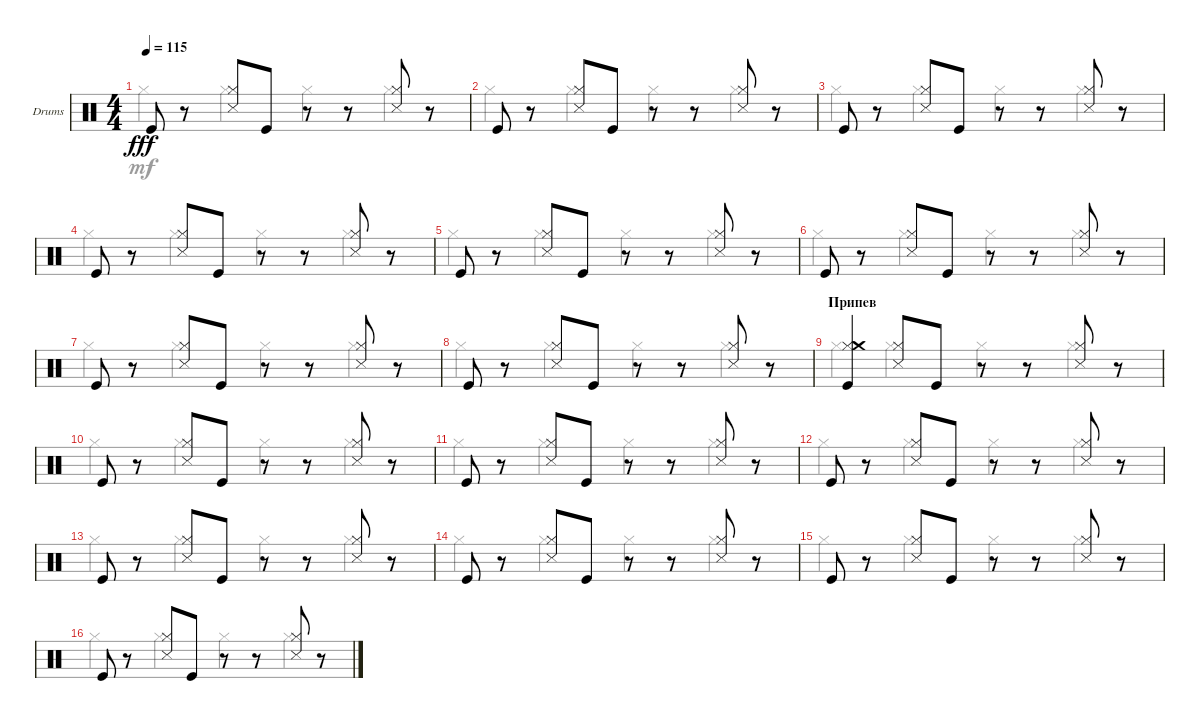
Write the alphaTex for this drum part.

\defaultSystemsLayout 4
\bracketExtendMode groupsimilarinstruments
\firstSystemTrackNameOrientation horizontal
\otherSystemsTrackNameOrientation horizontal
\track ("Миша \"Пчёлка\" Краев (Ударные)" "Drums") {instrument percussion}
\staff {score}
\articulation defaults
\voice
\ts (4 4)
\tempo 115
\clef neutral
\ks c "Kick (hit)".8{dy fff}
r.8 ("Snare (side stick) 3" "Hi-Hat (closed)").8 "Kick (hit)".8 r.8 r.8 ("Hi-Hat (closed)" "Snare (side stick) 3").8 r.8 |
"Kick (hit)".8 r.8 ("Hi-Hat (closed)" "Snare (side stick) 3").8 "Kick (hit)".8 r.8 r.8 ("Hi-Hat (closed)" "Snare (side stick) 3").8 r.8 |
"Kick (hit)".8 r.8 ("Hi-Hat (closed)" "Snare (side stick) 3").8 "Kick (hit)".8 r.8 r.8 ("Hi-Hat (closed)" "Snare (side stick) 3").8 r.8 |
"Kick (hit)".8 r.8 ("Hi-Hat (closed)" "Snare (side stick) 3").8 "Kick (hit)".8 r.8 r.8 ("Hi-Hat (closed)" "Snare (side stick) 3").8 r.8 |
"Kick (hit)".8 r.8 ("Hi-Hat (closed)" "Snare (side stick) 3").8 "Kick (hit)".8 r.8 r.8 ("Hi-Hat (closed)" "Snare (side stick) 3").8 r.8 |
"Kick (hit)".8 r.8 ("Hi-Hat (closed)" "Snare (side stick) 3").8 "Kick (hit)".8 r.8 r.8 ("Snare (side stick) 3" "Hi-Hat (closed)").8 r.8 |
"Kick (hit)".8 r.8 ("Hi-Hat (closed)" "Snare (side stick) 3").8 "Kick (hit)".8 r.8 r.8 ("Hi-Hat (closed)" "Snare (side stick) 3").8 r.8 |
"Kick (hit)".8 r.8 ("Hi-Hat (closed)" "Snare (side stick) 3").8 "Kick (hit)".8 r.8 r.8 ("Hi-Hat (closed)" "Snare (side stick) 3").8 r.8 |
\section ("" "Припев")
("Hi-Hat (closed)" "Kick (hit)" "Crash medium (hit)").4 ("Hi-Hat (closed)" "Snare (side stick) 3").8 "Kick (hit)".8 r.8 r.8 ("Hi-Hat (closed)" "Snare (side stick) 3").8 r.8 |
"Kick (hit)".8 r.8 ("Hi-Hat (closed)" "Snare (side stick) 3").8 "Kick (hit)".8 r.8 r.8 ("Hi-Hat (closed)" "Snare (side stick) 3").8 r.8 |
"Kick (hit)".8 r.8 ("Hi-Hat (closed)" "Snare (side stick) 3").8 "Kick (hit)".8 r.8 r.8 ("Hi-Hat (closed)" "Snare (side stick) 3").8 r.8 |
"Kick (hit)".8 r.8 ("Hi-Hat (closed)" "Snare (side stick) 3").8 "Kick (hit)".8 r.8 r.8 ("Hi-Hat (closed)" "Snare (side stick) 3").8 r.8 |
"Kick (hit)".8 r.8 ("Hi-Hat (closed)" "Snare (side stick) 3").8 "Kick (hit)".8 r.8 r.8 ("Hi-Hat (closed)" "Snare (side stick) 3").8 r.8 |
"Kick (hit)".8 r.8 ("Hi-Hat (closed)" "Snare (side stick) 3").8 "Kick (hit)".8 r.8 r.8 ("Hi-Hat (closed)" "Snare (side stick) 3").8 r.8 |
"Kick (hit)".8 r.8 ("Hi-Hat (closed)" "Snare (side stick) 3").8 "Kick (hit)".8 r.8 r.8 ("Hi-Hat (closed)" "Snare (side stick) 3").8 r.8 |
"Kick (hit)".8 r.8 ("Hi-Hat (closed)" "Snare (side stick) 3").8 "Kick (hit)".8 r.8 r.8 ("Hi-Hat (closed)" "Snare (side stick) 3").8 r.8
\voice
\clef neutral
\ottava regular
\simile none
\ks c "Hi-Hat (closed)".4{dy mf} "Hi-Hat (closed)".4 "Hi-Hat (closed)".4 "Hi-Hat (closed)".4
|
"Hi-Hat (closed)".4 "Hi-Hat (closed)".4 "Hi-Hat (closed)".4 "Hi-Hat (closed)".4 |
"Hi-Hat (closed)".4 "Hi-Hat (closed)".4 "Hi-Hat (closed)".4 "Hi-Hat (closed)".4 |
"Hi-Hat (closed)".4 "Hi-Hat (closed)".4 "Hi-Hat (closed)".4 "Hi-Hat (closed)".4 |
"Hi-Hat (closed)".4 "Hi-Hat (closed)".4 "Hi-Hat (closed)".4 "Hi-Hat (closed)".4 |
"Hi-Hat (closed)".4 "Hi-Hat (closed)".4 "Hi-Hat (closed)".4 "Hi-Hat (closed)".4 |
"Hi-Hat (closed)".4 "Hi-Hat (closed)".4 "Hi-Hat (closed)".4 "Hi-Hat (closed)".4 |
"Hi-Hat (closed)".4 "Hi-Hat (closed)".4 "Hi-Hat (closed)".4 "Hi-Hat (closed)".4 |
"Hi-Hat (closed)".4 "Hi-Hat (closed)".4 "Hi-Hat (closed)".4 "Hi-Hat (closed)".4 |
"Hi-Hat (closed)".4 "Hi-Hat (closed)".4 "Hi-Hat (closed)".4 "Hi-Hat (closed)".4 |
"Hi-Hat (closed)".4 "Hi-Hat (closed)".4 "Hi-Hat (closed)".4 "Hi-Hat (closed)".4 |
"Hi-Hat (closed)".4 "Hi-Hat (closed)".4 "Hi-Hat (closed)".4 "Hi-Hat (closed)".4 |
"Hi-Hat (closed)".4 "Hi-Hat (closed)".4 "Hi-Hat (closed)".4 "Hi-Hat (closed)".4 |
"Hi-Hat (closed)".4 "Hi-Hat (closed)".4 "Hi-Hat (closed)".4 "Hi-Hat (closed)".4 |
"Hi-Hat (closed)".4 "Hi-Hat (closed)".4 "Hi-Hat (closed)".4 "Hi-Hat (closed)".4 |
"Hi-Hat (closed)".4 "Hi-Hat (closed)".4 "Hi-Hat (closed)".4 "Hi-Hat (closed)".4
